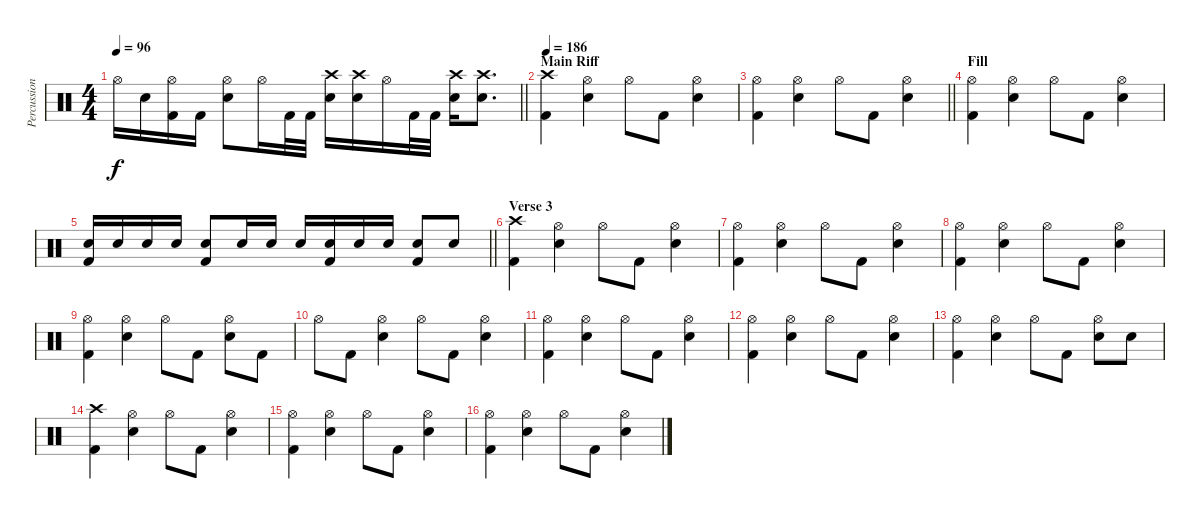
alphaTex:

\track ("Percussion" "Percussion") {instrument percussion}
\staff {score}
\articulation defaults
\ts (4 4)
\tempo 96
\clef neutral
\barLineRight lightlight
\ks c "Hi-Hat (open)".16{dy f} "Snare (hit) 2".16
("Hi-Hat (open)" "Kick (hit) 2").16 "Kick (hit) 2".16 ("Hi-Hat (open)" "Snare (hit) 2").8 "Hi-Hat (open)".16 "Kick (hit) 2".32 "Kick (hit) 2".32 ("Crash high (hit)" "Snare (hit) 2").16 ("Crash high (hit)" "Snare (hit) 2").16 "Hi-Hat (open)".16 "Kick (hit) 2".32 "Kick (hit) 2".32 ("Crash high (hit)" "Snare (hit) 2").16 ("Crash high (hit)" "Snare (hit) 2").8{d} |
\section ("" "Main Riff")
\tempo 186
("Crash high (hit)" "Kick (hit) 2").4 ("Hi-Hat (open)" "Snare (hit) 2").4 "Hi-Hat (open)".8 "Kick (hit) 2".8 ("Hi-Hat (open)" "Snare (hit) 2").4 |
\barLineRight lightlight
("Hi-Hat (open)" "Kick (hit) 2").4 ("Hi-Hat (open)" "Snare (hit) 2").4 "Hi-Hat (open)".8 "Kick (hit) 2".8 ("Hi-Hat (open)" "Snare (hit) 2").4 |
\section ("" "Fill")
("Hi-Hat (open)" "Kick (hit) 2").4 ("Hi-Hat (open)" "Snare (hit) 2").4 "Hi-Hat (open)".8 "Kick (hit) 2".8 ("Hi-Hat (open)" "Snare (hit) 2").4 |
\barLineRight lightlight
("Snare (hit) 2" "Kick (hit) 2").16 "Snare (hit) 2".16 "Snare (hit) 2".16 "Snare (hit) 2".16 ("Snare (hit) 2" "Kick (hit) 2").8 "Snare (hit) 2".16 "Snare (hit) 2".16 "Snare (hit) 2".16 ("Snare (hit) 2" "Kick (hit) 2").16 "Snare (hit) 2".16 "Snare (hit) 2".16 ("Snare (hit) 2" "Kick (hit) 2").8 "Snare (hit) 2".8 |
\section ("" "Verse 3")
("Crash high (hit)" "Kick (hit) 2").4 ("Hi-Hat (open)" "Snare (hit) 2").4 "Hi-Hat (open)".8 "Kick (hit) 2".8 ("Hi-Hat (open)" "Snare (hit) 2").4 |
("Hi-Hat (open)" "Kick (hit) 2").4 ("Hi-Hat (open)" "Snare (hit) 2").4 "Hi-Hat (open)".8 "Kick (hit) 2".8 ("Hi-Hat (open)" "Snare (hit) 2").4 |
("Hi-Hat (open)" "Kick (hit) 2").4 ("Hi-Hat (open)" "Snare (hit) 2").4 "Hi-Hat (open)".8 "Kick (hit) 2".8 ("Hi-Hat (open)" "Snare (hit) 2").4 |
("Hi-Hat (open)" "Kick (hit) 2").4 ("Hi-Hat (open)" "Snare (hit) 2").4 "Hi-Hat (open)".8 "Kick (hit) 2".8 ("Hi-Hat (open)" "Snare (hit) 2").8 "Kick (hit) 2".8 |
"Hi-Hat (open)".8 "Kick (hit) 2".8 ("Hi-Hat (open)" "Snare (hit) 2").4 "Hi-Hat (open)".8 "Kick (hit) 2".8 ("Hi-Hat (open)" "Snare (hit) 2").4 |
("Hi-Hat (open)" "Kick (hit) 2").4 ("Hi-Hat (open)" "Snare (hit) 2").4 "Hi-Hat (open)".8 "Kick (hit) 2".8 ("Hi-Hat (open)" "Snare (hit) 2").4 |
("Hi-Hat (open)" "Kick (hit) 2").4 ("Hi-Hat (open)" "Snare (hit) 2").4 "Hi-Hat (open)".8 "Kick (hit) 2".8 ("Hi-Hat (open)" "Snare (hit) 2").4 |
("Hi-Hat (open)" "Kick (hit) 2").4 ("Hi-Hat (open)" "Snare (hit) 2").4 "Hi-Hat (open)".8 "Kick (hit) 2".8 ("Hi-Hat (open)" "Snare (hit) 2").8 "Snare (hit) 2".8 |
("Crash high (hit)" "Kick (hit) 2").4 ("Hi-Hat (open)" "Snare (hit) 2").4 "Hi-Hat (open)".8 "Kick (hit) 2".8 ("Hi-Hat (open)" "Snare (hit) 2").4 |
("Hi-Hat (open)" "Kick (hit) 2").4 ("Hi-Hat (open)" "Snare (hit) 2").4 "Hi-Hat (open)".8 "Kick (hit) 2".8 ("Hi-Hat (open)" "Snare (hit) 2").4 |
("Hi-Hat (open)" "Kick (hit) 2").4 ("Hi-Hat (open)" "Snare (hit) 2").4 "Hi-Hat (open)".8 "Kick (hit) 2".8 ("Hi-Hat (open)" "Snare (hit) 2").4
